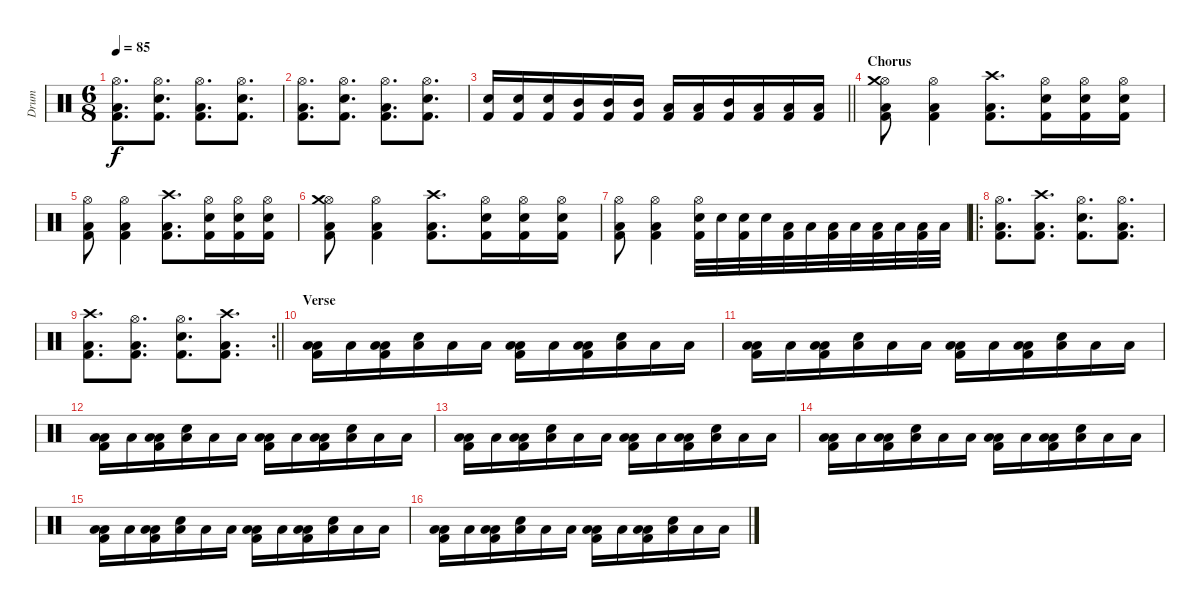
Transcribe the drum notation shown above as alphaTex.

\track ("Drum" "Drum") {instrument percussion}
\staff {score}
\articulation defaults
\ts (6 8)
\tempo 85
\clef neutral
\ks c
("Hi-Hat (open)" "Low Floor Tom (hit)" "Kick (hit) 2").8{d dy f} ("Hi-Hat (open)" "Electric Snare (hit)" "Kick (hit) 2").8{d} ("Hi-Hat (open)" "Low Floor Tom (hit)" "Kick (hit) 2").8{d} ("Hi-Hat (open)" "Electric Snare (hit)" "Kick (hit) 2").8{d} |
("Hi-Hat (open)" "Low Floor Tom (hit)" "Kick (hit) 2").8{d} ("Hi-Hat (open)" "Electric Snare (hit)" "Kick (hit) 2").8{d} ("Hi-Hat (open)" "Low Floor Tom (hit)" "Kick (hit) 2").8{d} ("Hi-Hat (open)" "Electric Snare (hit)" "Kick (hit) 2").8{d} |
\barLineRight lightlight
("Electric Snare (hit)" "Kick (hit) 2").16 ("Electric Snare (hit)" "Kick (hit) 2").16 ("Electric Snare (hit)" "Kick (hit) 2").16 ("Mid Tom (hit)" "Kick (hit) 2").16 ("Mid Tom (hit)" "Kick (hit) 2").16 ("Mid Tom (hit)" "Kick (hit) 2").16 ("Low Tom (hit)" "Kick (hit) 2").16 ("Low Tom (hit)" "Kick (hit) 2").16 ("Mid Tom (hit)" "Kick (hit) 2").16 ("Low Floor Tom (hit)" "Kick (hit) 2").16 ("Low Floor Tom (hit)" "Kick (hit) 2").16 ("Low Floor Tom (hit)" "Kick (hit) 2").16 |
\section ("" "Chorus")
("Hi-Hat (open)" "Low Floor Tom (hit)" "Crash medium (hit)" "Kick (hit) 2").8 ("Hi-Hat (open)" "Low Floor Tom (hit)" "Kick (hit) 2").4 ("Crash high (hit)" "Low Floor Tom (hit)" "Kick (hit) 2").8{d} ("Hi-Hat (open)" "Electric Snare (hit)" "Kick (hit) 2").16 ("Hi-Hat (open)" "Electric Snare (hit)" "Kick (hit) 2").16 ("Hi-Hat (open)" "Electric Snare (hit)" "Kick (hit) 2").16 |
("Hi-Hat (open)" "Low Floor Tom (hit)" "Kick (hit) 2").8 ("Hi-Hat (open)" "Low Floor Tom (hit)" "Kick (hit) 2").4 ("Crash high (hit)" "Low Floor Tom (hit)" "Kick (hit) 2").8{d} ("Hi-Hat (open)" "Electric Snare (hit)" "Kick (hit) 2").16 ("Hi-Hat (open)" "Electric Snare (hit)" "Kick (hit) 2").16 ("Hi-Hat (open)" "Electric Snare (hit)" "Kick (hit) 2").16 |
("Hi-Hat (open)" "Low Floor Tom (hit)" "Crash medium (hit)" "Kick (hit) 2").8 ("Hi-Hat (open)" "Low Floor Tom (hit)" "Kick (hit) 2").4 ("Crash high (hit)" "Low Floor Tom (hit)" "Kick (hit) 2").8{d} ("Hi-Hat (open)" "Electric Snare (hit)" "Kick (hit) 2").16 ("Hi-Hat (open)" "Electric Snare (hit)" "Kick (hit) 2").16 ("Hi-Hat (open)" "Electric Snare (hit)" "Kick (hit) 2").16 |
("Hi-Hat (open)" "Low Floor Tom (hit)" "Kick (hit) 2").8 ("Hi-Hat (open)" "Low Floor Tom (hit)" "Kick (hit) 2").4 ("Hi-Hat (open)" "Electric Snare (hit)" "Kick (hit) 2").32 "Electric Snare (hit)".32 ("Electric Snare (hit)" "Kick (hit) 2").32 "Electric Snare (hit)".32 ("Low Tom (hit)" "Kick (hit) 2").32 "Low Tom (hit)".32 ("Low Tom (hit)" "Kick (hit) 2").32 "Low Tom (hit)".32 ("Low Floor Tom (hit)" "Kick (hit) 2").32 "Low Floor Tom (hit)".32 ("Low Floor Tom (hit)" "Kick (hit) 2").32 "Low Floor Tom (hit)".32 |
\ro
("Hi-Hat (open)" "Low Floor Tom (hit)" "Kick (hit) 2").8{d} ("Crash high (hit)" "Low Floor Tom (hit)" "Kick (hit) 2").8{d} ("Hi-Hat (open)" "Electric Snare (hit)" "Kick (hit) 2").8{d} ("Hi-Hat (open)" "Low Floor Tom (hit)" "Kick (hit) 2").8{d} |
\rc 2
\barLineRight lightlight
("Crash high (hit)" "Low Floor Tom (hit)" "Kick (hit) 2").8{d} ("Hi-Hat (open)" "Low Floor Tom (hit)" "Kick (hit) 2").8{d} ("Hi-Hat (open)" "Electric Snare (hit)" "Kick (hit) 2").8{d} ("Crash high (hit)" "Low Floor Tom (hit)" "Kick (hit) 2").8{d} |
\section ("" "Verse")
("Low Floor Tom (hit)" "Low Tom (hit)" "Kick (hit) 2").16 "Low Tom (hit)".16 ("Low Floor Tom (hit)" "Low Tom (hit)" "Kick (hit) 2").16 ("Low Tom (hit)" "Electric Snare (hit)").16 "Low Tom (hit)".16 "Low Tom (hit)".16 ("Low Floor Tom (hit)" "Low Tom (hit)" "Kick (hit) 2").16 "Low Tom (hit)".16 ("Low Floor Tom (hit)" "Low Tom (hit)" "Kick (hit) 2").16 ("Low Tom (hit)" "Electric Snare (hit)").16 "Low Tom (hit)".16 "Low Tom (hit)".16 |
("Low Floor Tom (hit)" "Low Tom (hit)" "Kick (hit) 2").16 "Low Tom (hit)".16 ("Low Floor Tom (hit)" "Low Tom (hit)" "Kick (hit) 2").16 ("Low Tom (hit)" "Electric Snare (hit)").16 "Low Tom (hit)".16 "Low Tom (hit)".16 ("Low Floor Tom (hit)" "Low Tom (hit)" "Kick (hit) 2").16 "Low Tom (hit)".16 ("Low Floor Tom (hit)" "Low Tom (hit)" "Kick (hit) 2").16 ("Low Tom (hit)" "Electric Snare (hit)").16 "Low Tom (hit)".16 "Low Tom (hit)".16 |
("Low Floor Tom (hit)" "Low Tom (hit)" "Kick (hit) 2").16 "Low Tom (hit)".16 ("Low Floor Tom (hit)" "Low Tom (hit)" "Kick (hit) 2").16 ("Low Tom (hit)" "Electric Snare (hit)").16 "Low Tom (hit)".16 "Low Tom (hit)".16 ("Low Floor Tom (hit)" "Low Tom (hit)" "Kick (hit) 2").16 "Low Tom (hit)".16 ("Low Floor Tom (hit)" "Low Tom (hit)" "Kick (hit) 2").16 ("Low Tom (hit)" "Electric Snare (hit)").16 "Low Tom (hit)".16 "Low Tom (hit)".16 |
("Low Floor Tom (hit)" "Low Tom (hit)" "Kick (hit) 2").16 "Low Tom (hit)".16 ("Low Floor Tom (hit)" "Low Tom (hit)" "Kick (hit) 2").16 ("Low Tom (hit)" "Electric Snare (hit)").16 "Low Tom (hit)".16 "Low Tom (hit)".16 ("Low Floor Tom (hit)" "Low Tom (hit)" "Kick (hit) 2").16 "Low Tom (hit)".16 ("Low Floor Tom (hit)" "Low Tom (hit)" "Kick (hit) 2").16 ("Low Tom (hit)" "Electric Snare (hit)").16 "Low Tom (hit)".16 "Low Tom (hit)".16 |
("Low Floor Tom (hit)" "Low Tom (hit)" "Kick (hit) 2").16 "Low Tom (hit)".16 ("Low Floor Tom (hit)" "Low Tom (hit)" "Kick (hit) 2").16 ("Low Tom (hit)" "Electric Snare (hit)").16 "Low Tom (hit)".16 "Low Tom (hit)".16 ("Low Floor Tom (hit)" "Low Tom (hit)" "Kick (hit) 2").16 "Low Tom (hit)".16 ("Low Floor Tom (hit)" "Low Tom (hit)" "Kick (hit) 2").16 ("Low Tom (hit)" "Electric Snare (hit)").16 "Low Tom (hit)".16 "Low Tom (hit)".16 |
("Low Floor Tom (hit)" "Low Tom (hit)" "Kick (hit) 2").16 "Low Tom (hit)".16 ("Low Floor Tom (hit)" "Low Tom (hit)" "Kick (hit) 2").16 ("Low Tom (hit)" "Electric Snare (hit)").16 "Low Tom (hit)".16 "Low Tom (hit)".16 ("Low Floor Tom (hit)" "Low Tom (hit)" "Kick (hit) 2").16 "Low Tom (hit)".16 ("Low Floor Tom (hit)" "Low Tom (hit)" "Kick (hit) 2").16 ("Low Tom (hit)" "Electric Snare (hit)").16 "Low Tom (hit)".16 "Low Tom (hit)".16 |
("Low Floor Tom (hit)" "Low Tom (hit)" "Kick (hit) 2").16 "Low Tom (hit)".16 ("Low Floor Tom (hit)" "Low Tom (hit)" "Kick (hit) 2").16 ("Low Tom (hit)" "Electric Snare (hit)").16 "Low Tom (hit)".16 "Low Tom (hit)".16 ("Low Floor Tom (hit)" "Low Tom (hit)" "Kick (hit) 2").16 "Low Tom (hit)".16 ("Low Floor Tom (hit)" "Low Tom (hit)" "Kick (hit) 2").16 ("Low Tom (hit)" "Electric Snare (hit)").16 "Low Tom (hit)".16 "Low Tom (hit)".16
